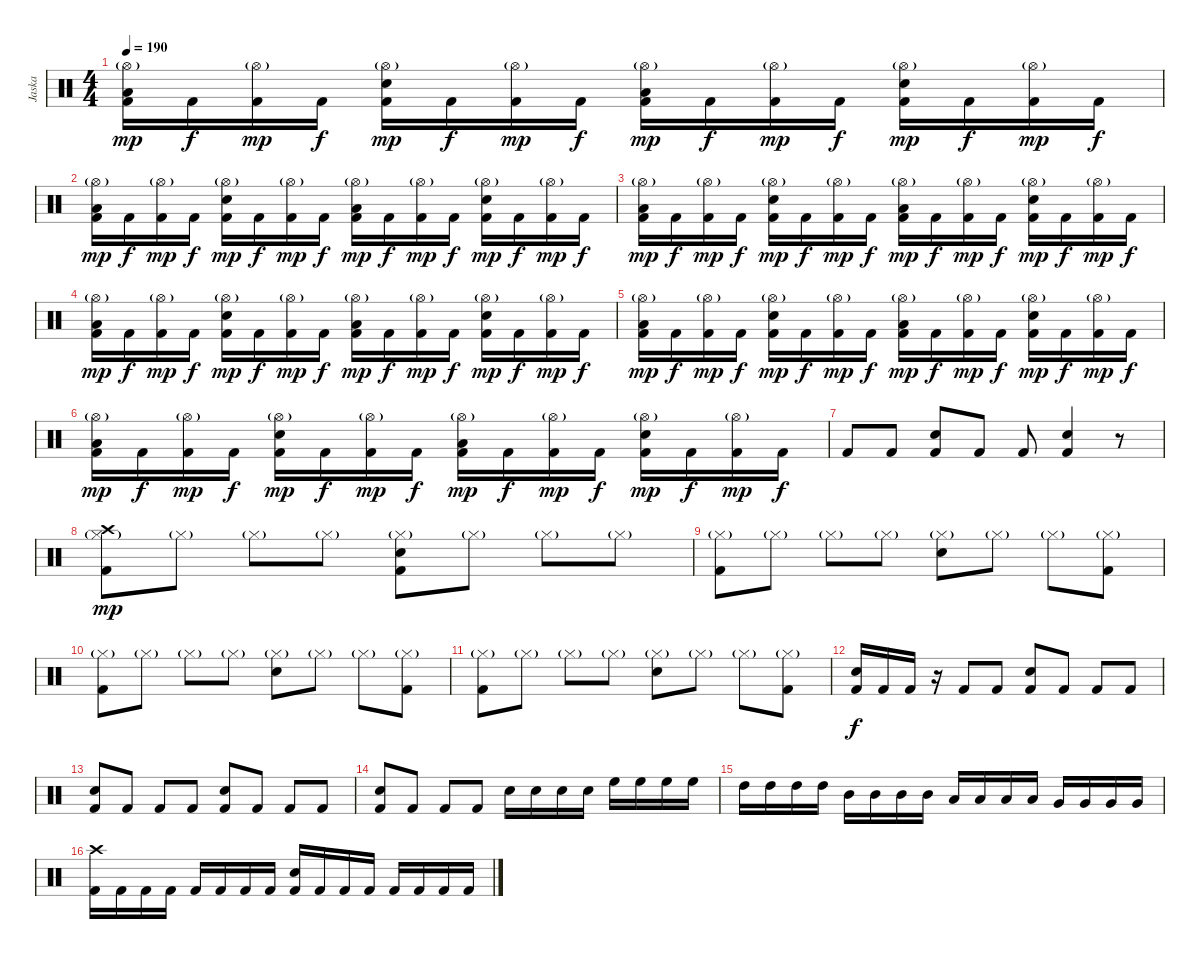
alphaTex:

\track ("Jaska" "Jaska") {instrument percussion}
\staff {score}
\articulation defaults
\ts (4 4)
\tempo 190
\clef neutral
\ks c
("Kick (hit) 2" "Hi-Hat (open)"{g} "Low Tom (hit)").16{dy mp} "Kick (hit) 2".16{dy f} ("Kick (hit) 2" "Hi-Hat (open)"{g}).16{dy mp} "Kick (hit) 2".16{dy f} ("Kick (hit) 2" "Hi-Hat (open)"{g} "Snare (hit) 2").16{dy mp} "Kick (hit) 2".16{dy f} ("Kick (hit) 2" "Hi-Hat (open)"{g}).16{dy mp} "Kick (hit) 2".16{dy f} ("Kick (hit) 2" "Hi-Hat (open)"{g} "Low Tom (hit)").16{dy mp} "Kick (hit) 2".16{dy f} ("Kick (hit) 2" "Hi-Hat (open)"{g}).16{dy mp} "Kick (hit) 2".16{dy f} ("Kick (hit) 2" "Hi-Hat (open)"{g} "Snare (hit) 2").16{dy mp} "Kick (hit) 2".16{dy f} ("Kick (hit) 2" "Hi-Hat (open)"{g}).16{dy mp} "Kick (hit) 2".16{dy f} |
("Kick (hit) 2" "Hi-Hat (open)"{g} "Low Tom (hit)").16{dy mp} "Kick (hit) 2".16{dy f} ("Kick (hit) 2" "Hi-Hat (open)"{g}).16{dy mp} "Kick (hit) 2".16{dy f} ("Kick (hit) 2" "Hi-Hat (open)"{g} "Snare (hit) 2").16{dy mp} "Kick (hit) 2".16{dy f} ("Kick (hit) 2" "Hi-Hat (open)"{g}).16{dy mp} "Kick (hit) 2".16{dy f} ("Kick (hit) 2" "Hi-Hat (open)"{g} "Low Tom (hit)").16{dy mp} "Kick (hit) 2".16{dy f} ("Kick (hit) 2" "Hi-Hat (open)"{g}).16{dy mp} "Kick (hit) 2".16{dy f} ("Kick (hit) 2" "Hi-Hat (open)"{g} "Snare (hit) 2").16{dy mp} "Kick (hit) 2".16{dy f} ("Kick (hit) 2" "Hi-Hat (open)"{g}).16{dy mp} "Kick (hit) 2".16{dy f} |
("Kick (hit) 2" "Hi-Hat (open)"{g} "Low Tom (hit)").16{dy mp} "Kick (hit) 2".16{dy f} ("Kick (hit) 2" "Hi-Hat (open)"{g}).16{dy mp} "Kick (hit) 2".16{dy f} ("Kick (hit) 2" "Hi-Hat (open)"{g} "Snare (hit) 2").16{dy mp} "Kick (hit) 2".16{dy f} ("Kick (hit) 2" "Hi-Hat (open)"{g}).16{dy mp} "Kick (hit) 2".16{dy f} ("Kick (hit) 2" "Hi-Hat (open)"{g} "Low Tom (hit)").16{dy mp} "Kick (hit) 2".16{dy f} ("Kick (hit) 2" "Hi-Hat (open)"{g}).16{dy mp} "Kick (hit) 2".16{dy f} ("Kick (hit) 2" "Hi-Hat (open)"{g} "Snare (hit) 2").16{dy mp} "Kick (hit) 2".16{dy f} ("Kick (hit) 2" "Hi-Hat (open)"{g}).16{dy mp} "Kick (hit) 2".16{dy f} |
("Kick (hit) 2" "Hi-Hat (open)"{g} "Low Tom (hit)").16{dy mp} "Kick (hit) 2".16{dy f} ("Kick (hit) 2" "Hi-Hat (open)"{g}).16{dy mp} "Kick (hit) 2".16{dy f} ("Kick (hit) 2" "Hi-Hat (open)"{g} "Snare (hit) 2").16{dy mp} "Kick (hit) 2".16{dy f} ("Kick (hit) 2" "Hi-Hat (open)"{g}).16{dy mp} "Kick (hit) 2".16{dy f} ("Kick (hit) 2" "Hi-Hat (open)"{g} "Low Tom (hit)").16{dy mp} "Kick (hit) 2".16{dy f} ("Kick (hit) 2" "Hi-Hat (open)"{g}).16{dy mp} "Kick (hit) 2".16{dy f} ("Kick (hit) 2" "Hi-Hat (open)"{g} "Snare (hit) 2").16{dy mp} "Kick (hit) 2".16{dy f} ("Kick (hit) 2" "Hi-Hat (open)"{g}).16{dy mp} "Kick (hit) 2".16{dy f} |
("Kick (hit) 2" "Hi-Hat (open)"{g} "Low Tom (hit)").16{dy mp} "Kick (hit) 2".16{dy f} ("Kick (hit) 2" "Hi-Hat (open)"{g}).16{dy mp} "Kick (hit) 2".16{dy f} ("Kick (hit) 2" "Hi-Hat (open)"{g} "Snare (hit) 2").16{dy mp} "Kick (hit) 2".16{dy f} ("Kick (hit) 2" "Hi-Hat (open)"{g}).16{dy mp} "Kick (hit) 2".16{dy f} ("Kick (hit) 2" "Hi-Hat (open)"{g} "Low Tom (hit)").16{dy mp} "Kick (hit) 2".16{dy f} ("Kick (hit) 2" "Hi-Hat (open)"{g}).16{dy mp} "Kick (hit) 2".16{dy f} ("Kick (hit) 2" "Hi-Hat (open)"{g} "Snare (hit) 2").16{dy mp} "Kick (hit) 2".16{dy f} ("Kick (hit) 2" "Hi-Hat (open)"{g}).16{dy mp} "Kick (hit) 2".16{dy f} |
("Kick (hit) 2" "Hi-Hat (open)"{g} "Low Tom (hit)").16{dy mp} "Kick (hit) 2".16{dy f} ("Kick (hit) 2" "Hi-Hat (open)"{g}).16{dy mp} "Kick (hit) 2".16{dy f} ("Kick (hit) 2" "Hi-Hat (open)"{g} "Snare (hit) 2").16{dy mp} "Kick (hit) 2".16{dy f} ("Kick (hit) 2" "Hi-Hat (open)"{g}).16{dy mp} "Kick (hit) 2".16{dy f} ("Kick (hit) 2" "Hi-Hat (open)"{g} "Low Tom (hit)").16{dy mp} "Kick (hit) 2".16{dy f} ("Kick (hit) 2" "Hi-Hat (open)"{g}).16{dy mp} "Kick (hit) 2".16{dy f} ("Kick (hit) 2" "Hi-Hat (open)"{g} "Snare (hit) 2").16{dy mp} "Kick (hit) 2".16{dy f} ("Kick (hit) 2" "Hi-Hat (open)"{g}).16{dy mp} "Kick (hit) 2".16{dy f} |
"Kick (hit) 2".8 "Kick (hit) 2".8 ("Kick (hit) 2" "Electric Snare (hit)").8 "Kick (hit) 2".8 "Kick (hit) 2".8 ("Kick (hit) 2" "Electric Snare (hit)").4 r.8 |
("Kick (hit) 2" "Hi-Hat (closed)"{g} "Crash high (hit)").8{dy mp} "Hi-Hat (closed)"{g}.8 "Hi-Hat (closed)"{g}.8 "Hi-Hat (closed)"{g}.8 ("Kick (hit) 2" "Hi-Hat (closed)"{g} "Snare (hit) 2").8 "Hi-Hat (closed)"{g}.8 "Hi-Hat (closed)"{g}.8 "Hi-Hat (closed)"{g}.8 |
("Kick (hit) 2" "Hi-Hat (closed)"{g}).8 "Hi-Hat (closed)"{g}.8 "Hi-Hat (closed)"{g}.8 "Hi-Hat (closed)"{g}.8 ("Hi-Hat (closed)"{g} "Snare (hit) 2").8 "Hi-Hat (closed)"{g}.8 "Hi-Hat (closed)"{g}.8 ("Kick (hit) 2" "Hi-Hat (closed)"{g}).8 |
("Kick (hit) 2" "Hi-Hat (closed)"{g}).8 "Hi-Hat (closed)"{g}.8 "Hi-Hat (closed)"{g}.8 "Hi-Hat (closed)"{g}.8 ("Hi-Hat (closed)"{g} "Snare (hit) 2").8 "Hi-Hat (closed)"{g}.8 "Hi-Hat (closed)"{g}.8 ("Kick (hit) 2" "Hi-Hat (closed)"{g}).8 |
("Kick (hit) 2" "Hi-Hat (closed)"{g}).8 "Hi-Hat (closed)"{g}.8 "Hi-Hat (closed)"{g}.8 "Hi-Hat (closed)"{g}.8 ("Hi-Hat (closed)"{g} "Snare (hit) 2").8 "Hi-Hat (closed)"{g}.8 "Hi-Hat (closed)"{g}.8 ("Kick (hit) 2" "Hi-Hat (closed)"{g}).8 |
("Kick (hit) 2" "Electric Snare (hit)").16{dy f} "Kick (hit) 2".16 "Kick (hit) 2".16 r.16 "Kick (hit) 2".8 "Kick (hit) 2".8 ("Kick (hit) 2" "Snare (hit) 2").8 "Kick (hit) 2".8 "Kick (hit) 2".8 "Kick (hit) 2".8 |
("Kick (hit) 2" "Electric Snare (hit)").8 "Kick (hit) 2".8 "Kick (hit) 2".8 "Kick (hit) 2".8 ("Kick (hit) 2" "Snare (hit) 2").8 "Kick (hit) 2".8 "Kick (hit) 2".8 "Kick (hit) 2".8 |
("Kick (hit) 2" "Electric Snare (hit)").8 "Kick (hit) 2".8 "Kick (hit) 2".8 "Kick (hit) 2".8 "Snare (hit) 2".16 "Snare (hit) 2".16 "Snare (hit) 2".16 "Snare (hit) 2".16 "High Floor Tom (hit)".16 "High Floor Tom (hit)".16 "High Floor Tom (hit)".16 "High Floor Tom (hit)".16 |
"High Tom (hit)".16 "High Tom (hit)".16 "High Tom (hit)".16 "High Tom (hit)".16 "Mid Tom (hit)".16 "Mid Tom (hit)".16 "Mid Tom (hit)".16 "Mid Tom (hit)".16 "Low Tom (hit)".16 "Low Tom (hit)".16 "Low Tom (hit)".16 "Low Tom (hit)".16 "Very Low Tom (hit)".16 "Very Low Tom (hit)".16 "Very Low Tom (hit)".16 "Very Low Tom (hit)".16 |
("Kick (hit) 2" "Crash high (hit)").16 "Kick (hit) 2".16 "Kick (hit) 2".16 "Kick (hit) 2".16 "Kick (hit) 2".16 "Kick (hit) 2".16 "Kick (hit) 2".16 "Kick (hit) 2".16 ("Kick (hit) 2" "Snare (hit) 2").16 "Kick (hit) 2".16 "Kick (hit) 2".16 "Kick (hit) 2".16 "Kick (hit) 2".16 "Kick (hit) 2".16 "Kick (hit) 2".16 "Kick (hit) 2".16
